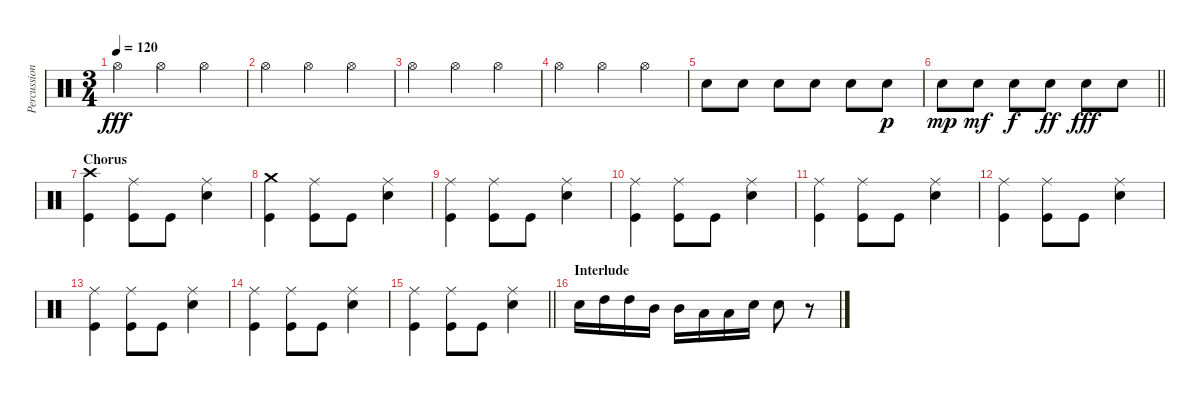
\track ("Percussion" "Percussion") {instrument percussion}
\staff {score}
\articulation defaults
\ts (3 4)
\tempo 120
\clef neutral
\ks c "Hi-Hat (open)".4{dy fff} "Hi-Hat (open)".4 "Hi-Hat (open)".4
|
"Hi-Hat (open)".4 "Hi-Hat (open)".4 "Hi-Hat (open)".4 |
"Hi-Hat (open)".4 "Hi-Hat (open)".4 "Hi-Hat (open)".4 |
"Hi-Hat (open)".4 "Hi-Hat (open)".4 "Hi-Hat (open)".4 |
"Electric Snare (hit)".8 "Electric Snare (hit)".8 "Electric Snare (hit)".8 "Electric Snare (hit)".8 "Electric Snare (hit)".8 "Electric Snare (hit)".8{dy p} |
\barLineRight lightlight "Electric Snare (hit)".8{dy mp} "Electric Snare (hit)".8{dy mf} "Electric Snare (hit)".8{dy f} "Electric Snare (hit)".8{dy ff} "Electric Snare (hit)".8{dy fff} "Electric Snare (hit)".8
|
\section ("" "Chorus")
("Crash high (hit)" "Kick (hit)").4 ("Ride (middle)" "Kick (hit)").8 "Kick (hit)".8 ("Ride (middle)" "Electric Snare (hit)").4 |
("Crash medium (hit)" "Kick (hit)").4 ("Ride (middle)" "Kick (hit)").8 "Kick (hit)".8 ("Ride (middle)" "Electric Snare (hit)").4 |
("Ride (middle)" "Kick (hit)").4 ("Ride (middle)" "Kick (hit)").8 "Kick (hit)".8 ("Ride (middle)" "Electric Snare (hit)").4 |
("Ride (middle)" "Kick (hit)").4 ("Ride (middle)" "Kick (hit)").8 "Kick (hit)".8 ("Ride (middle)" "Electric Snare (hit)").4 |
("Ride (middle)" "Kick (hit)").4 ("Ride (middle)" "Kick (hit)").8 "Kick (hit)".8 ("Ride (middle)" "Electric Snare (hit)").4 |
("Ride (middle)" "Kick (hit)").4 ("Ride (middle)" "Kick (hit)").8 "Kick (hit)".8 ("Ride (middle)" "Electric Snare (hit)").4 |
("Ride (middle)" "Kick (hit)").4 ("Ride (middle)" "Kick (hit)").8 "Kick (hit)".8 ("Ride (middle)" "Electric Snare (hit)").4 |
("Ride (middle)" "Kick (hit)").4 ("Ride (middle)" "Kick (hit)").8 "Kick (hit)".8 ("Ride (middle)" "Electric Snare (hit)").4 |
\barLineRight lightlight
("Ride (middle)" "Kick (hit)").4 ("Ride (middle)" "Kick (hit)").8 "Kick (hit)".8 ("Ride (middle)" "Electric Snare (hit)").4 |
\section ("" "Interlude")
"Electric Snare (hit)".16 "High Tom (hit)".16 "High Tom (hit)".16 "Mid Tom (hit)".16 "Mid Tom (hit)".16 "Low Tom (hit)".16 "Low Tom (hit)".16 "Electric Snare (hit)".16 "Electric Snare (hit)".8 r.8
